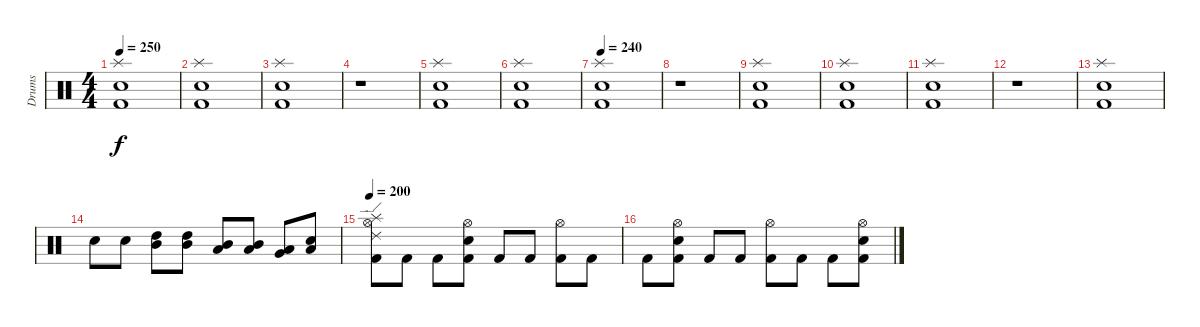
\track ("Drums" "Drums") {instrument percussion}
\staff {score}
\articulation defaults
\ts (4 4)
\tempo 250
\clef neutral
\ks c
("Splash (hit)" "Electric Snare (hit)" "Kick (hit) 2").1{dy f} |
("Splash (hit)" "Electric Snare (hit)" "Kick (hit) 2").1 |
("Splash (hit)" "Kick (hit) 2" "Electric Snare (hit)").1 |
r.1 |
("Splash (hit)" "Electric Snare (hit)" "Kick (hit) 2").1 |
("Splash (hit)" "Electric Snare (hit)" "Kick (hit) 2").1 |
\tempo 240
("Splash (hit)" "Kick (hit) 2" "Electric Snare (hit)").1 |
r.1 |
("Splash (hit)" "Electric Snare (hit)" "Kick (hit) 2").1 |
("Splash (hit)" "Electric Snare (hit)" "Kick (hit) 2").1 |
("Splash (hit)" "Kick (hit) 2" "Electric Snare (hit)").1 |
r.1 |
("Splash (hit)" "Electric Snare (hit)" "Kick (hit) 2").1 |
"Electric Snare (hit)".8 "Electric Snare (hit)".8 ("High Tom (hit)" "Mid Tom (hit)").8 ("High Tom (hit)" "Mid Tom (hit)").8 ("Mid Tom (hit)" "Low Tom (hit)").8 ("Mid Tom (hit)" "Low Tom (hit)").8 ("Low Tom (hit)" "Very Low Tom (hit)").8 ("Low Tom (hit)" "Metronome (bell)").8 |
\tempo 200
("Kick (hit) 2" "Ride (edge) 2" "Splash (hit)" "Hi-Hat (open)").8 "Kick (hit) 2".8 "Kick (hit) 2".8 ("Kick (hit) 2" "Electric Snare (hit)" "Hi-Hat (open)").8 "Kick (hit) 2".8 "Kick (hit) 2".8 ("Kick (hit) 2" "Hi-Hat (open)").8 "Kick (hit) 2".8 |
"Kick (hit) 2".8 ("Kick (hit) 2" "Electric Snare (hit)" "Hi-Hat (open)").8 "Kick (hit) 2".8 "Kick (hit) 2".8 ("Kick (hit) 2" "Hi-Hat (open)").8 "Kick (hit) 2".8 "Kick (hit) 2".8 ("Kick (hit) 2" "Electric Snare (hit)" "Hi-Hat (open)").8
